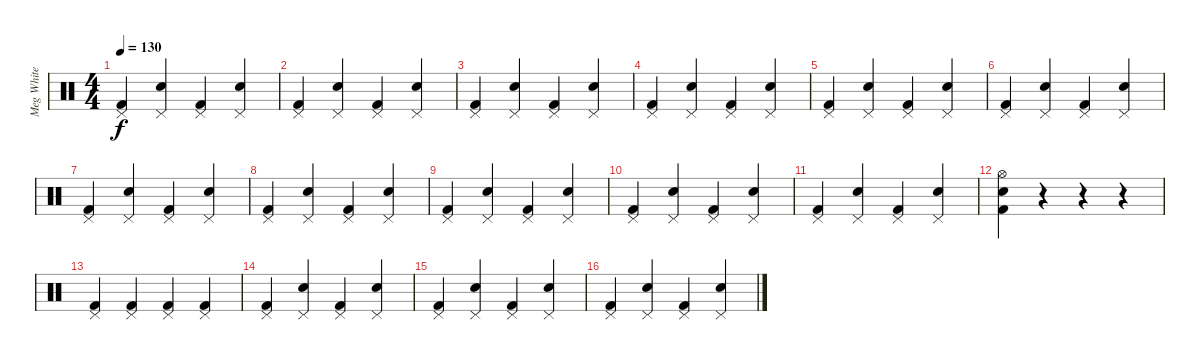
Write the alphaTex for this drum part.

\track ("Meg White" "Meg White") {instrument percussion}
\staff {score}
\articulation defaults
\ts (4 4)
\tempo 130
\clef neutral
\ks c
("Kick (hit) 2" "Pedal Hi-Hat (hit)").4{dy f} ("Electric Snare (hit)" "Pedal Hi-Hat (hit)").4 ("Kick (hit) 2" "Pedal Hi-Hat (hit)").4 ("Electric Snare (hit)" "Pedal Hi-Hat (hit)").4 |
("Kick (hit) 2" "Pedal Hi-Hat (hit)").4 ("Electric Snare (hit)" "Pedal Hi-Hat (hit)").4 ("Kick (hit) 2" "Pedal Hi-Hat (hit)").4 ("Electric Snare (hit)" "Pedal Hi-Hat (hit)").4 |
("Kick (hit) 2" "Pedal Hi-Hat (hit)").4 ("Electric Snare (hit)" "Pedal Hi-Hat (hit)").4 ("Kick (hit) 2" "Pedal Hi-Hat (hit)").4 ("Electric Snare (hit)" "Pedal Hi-Hat (hit)").4 |
("Kick (hit) 2" "Pedal Hi-Hat (hit)").4 ("Electric Snare (hit)" "Pedal Hi-Hat (hit)").4 ("Kick (hit) 2" "Pedal Hi-Hat (hit)").4 ("Electric Snare (hit)" "Pedal Hi-Hat (hit)").4 |
("Kick (hit) 2" "Pedal Hi-Hat (hit)").4 ("Electric Snare (hit)" "Pedal Hi-Hat (hit)").4 ("Kick (hit) 2" "Pedal Hi-Hat (hit)").4 ("Electric Snare (hit)" "Pedal Hi-Hat (hit)").4 |
("Kick (hit) 2" "Pedal Hi-Hat (hit)").4 ("Electric Snare (hit)" "Pedal Hi-Hat (hit)").4 ("Kick (hit) 2" "Pedal Hi-Hat (hit)").4 ("Electric Snare (hit)" "Pedal Hi-Hat (hit)").4 |
("Kick (hit) 2" "Pedal Hi-Hat (hit)").4 ("Electric Snare (hit)" "Pedal Hi-Hat (hit)").4 ("Kick (hit) 2" "Pedal Hi-Hat (hit)").4 ("Electric Snare (hit)" "Pedal Hi-Hat (hit)").4 |
("Kick (hit) 2" "Pedal Hi-Hat (hit)").4 ("Electric Snare (hit)" "Pedal Hi-Hat (hit)").4 ("Kick (hit) 2" "Pedal Hi-Hat (hit)").4 ("Electric Snare (hit)" "Pedal Hi-Hat (hit)").4 |
("Kick (hit) 2" "Pedal Hi-Hat (hit)").4 ("Electric Snare (hit)" "Pedal Hi-Hat (hit)").4 ("Kick (hit) 2" "Pedal Hi-Hat (hit)").4 ("Electric Snare (hit)" "Pedal Hi-Hat (hit)").4 |
("Kick (hit) 2" "Pedal Hi-Hat (hit)").4 ("Electric Snare (hit)" "Pedal Hi-Hat (hit)").4 ("Kick (hit) 2" "Pedal Hi-Hat (hit)").4 ("Electric Snare (hit)" "Pedal Hi-Hat (hit)").4 |
("Kick (hit) 2" "Pedal Hi-Hat (hit)").4 ("Electric Snare (hit)" "Pedal Hi-Hat (hit)").4 ("Kick (hit) 2" "Pedal Hi-Hat (hit)").4 ("Electric Snare (hit)" "Pedal Hi-Hat (hit)").4 |
("Kick (hit) 2" "Hi-Hat (open)" "Electric Snare (hit)").4 r.4 r.4 r.4 |
("Kick (hit) 2" "Pedal Hi-Hat (hit)").4 ("Kick (hit) 2" "Pedal Hi-Hat (hit)").4 ("Kick (hit) 2" "Pedal Hi-Hat (hit)").4 ("Kick (hit) 2" "Pedal Hi-Hat (hit)").4 |
("Kick (hit) 2" "Pedal Hi-Hat (hit)").4 ("Electric Snare (hit)" "Pedal Hi-Hat (hit)").4 ("Kick (hit) 2" "Pedal Hi-Hat (hit)").4 ("Electric Snare (hit)" "Pedal Hi-Hat (hit)").4 |
("Kick (hit) 2" "Pedal Hi-Hat (hit)").4 ("Electric Snare (hit)" "Pedal Hi-Hat (hit)").4 ("Kick (hit) 2" "Pedal Hi-Hat (hit)").4 ("Electric Snare (hit)" "Pedal Hi-Hat (hit)").4 |
("Kick (hit) 2" "Pedal Hi-Hat (hit)").4 ("Electric Snare (hit)" "Pedal Hi-Hat (hit)").4 ("Kick (hit) 2" "Pedal Hi-Hat (hit)").4 ("Electric Snare (hit)" "Pedal Hi-Hat (hit)").4
